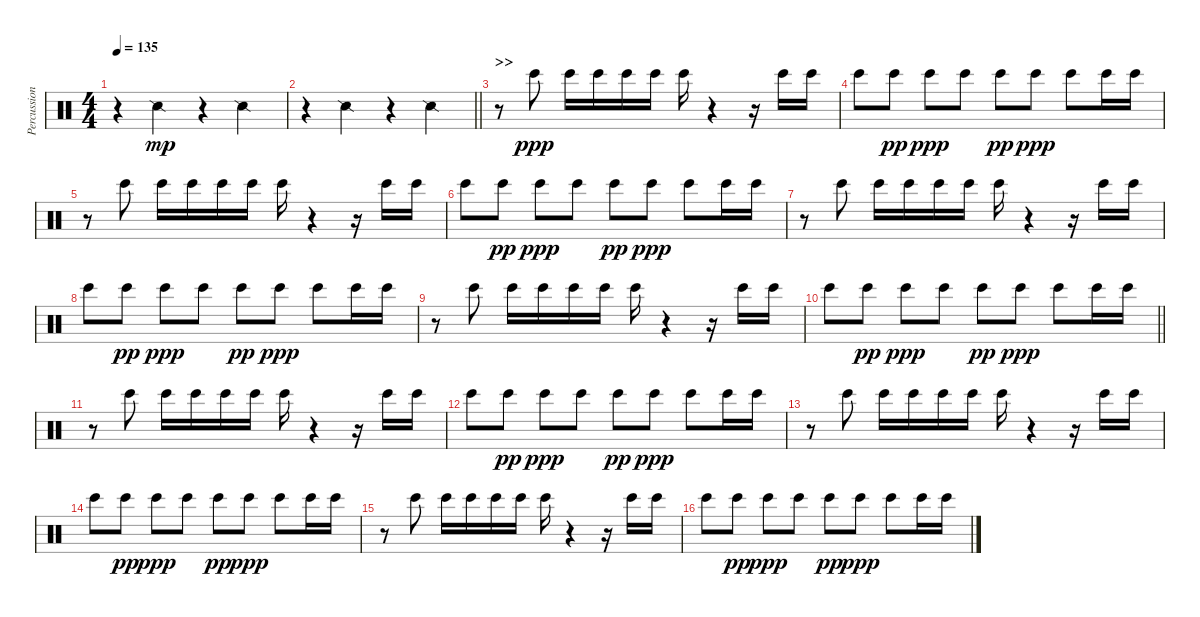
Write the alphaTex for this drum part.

\track ("Percussion" "Percussion") {instrument percussion}
\staff {score}
\articulation defaults
\ts (4 4)
\tempo 135
\clef neutral
\ks c
r.4{dy mp} "Snare (side stick) 2".4 r.4 "Snare (side stick) 2".4 |
\barLineRight lightlight
r.4 "Snare (side stick) 2".4 r.4 "Snare (side stick) 2".4 |
\section ("" ">>")
r.8 "Bongo High (hit)".8{dy ppp} "Bongo High (hit)".16 "Bongo High (hit)".16 "Bongo High (hit)".16 "Bongo High (hit)".16 "Bongo High (hit)".16 r.4 r.16 "Bongo High (hit)".16 "Bongo High (hit)".16 |
"Bongo High (hit)".8 "Bongo High (hit)".8{dy pp} "Bongo High (hit)".8{dy ppp} "Bongo High (hit)".8 "Bongo High (hit)".8{dy pp} "Bongo High (hit)".8{dy ppp} "Bongo High (hit)".8 "Bongo High (hit)".16 "Bongo High (hit)".16 |
r.8 "Bongo High (hit)".8 "Bongo High (hit)".16 "Bongo High (hit)".16 "Bongo High (hit)".16 "Bongo High (hit)".16 "Bongo High (hit)".16 r.4 r.16 "Bongo High (hit)".16 "Bongo High (hit)".16 |
"Bongo High (hit)".8 "Bongo High (hit)".8{dy pp} "Bongo High (hit)".8{dy ppp} "Bongo High (hit)".8 "Bongo High (hit)".8{dy pp} "Bongo High (hit)".8{dy ppp} "Bongo High (hit)".8 "Bongo High (hit)".16 "Bongo High (hit)".16 |
r.8 "Bongo High (hit)".8 "Bongo High (hit)".16 "Bongo High (hit)".16 "Bongo High (hit)".16 "Bongo High (hit)".16 "Bongo High (hit)".16 r.4 r.16 "Bongo High (hit)".16 "Bongo High (hit)".16 |
"Bongo High (hit)".8 "Bongo High (hit)".8{dy pp} "Bongo High (hit)".8{dy ppp} "Bongo High (hit)".8 "Bongo High (hit)".8{dy pp} "Bongo High (hit)".8{dy ppp} "Bongo High (hit)".8 "Bongo High (hit)".16 "Bongo High (hit)".16 |
r.8 "Bongo High (hit)".8 "Bongo High (hit)".16 "Bongo High (hit)".16 "Bongo High (hit)".16 "Bongo High (hit)".16 "Bongo High (hit)".16 r.4 r.16 "Bongo High (hit)".16 "Bongo High (hit)".16 |
\barLineRight lightlight "Bongo High (hit)".8 "Bongo High (hit)".8{dy pp} "Bongo High (hit)".8{dy ppp} "Bongo High (hit)".8 "Bongo High (hit)".8{dy pp} "Bongo High (hit)".8{dy ppp} "Bongo High (hit)".8 "Bongo High (hit)".16 "Bongo High (hit)".16
|
\section ("" "")
r.8 "Bongo High (hit)".8 "Bongo High (hit)".16 "Bongo High (hit)".16 "Bongo High (hit)".16 "Bongo High (hit)".16 "Bongo High (hit)".16 r.4 r.16 "Bongo High (hit)".16 "Bongo High (hit)".16 |
"Bongo High (hit)".8 "Bongo High (hit)".8{dy pp} "Bongo High (hit)".8{dy ppp} "Bongo High (hit)".8 "Bongo High (hit)".8{dy pp} "Bongo High (hit)".8{dy ppp} "Bongo High (hit)".8 "Bongo High (hit)".16 "Bongo High (hit)".16 |
r.8 "Bongo High (hit)".8 "Bongo High (hit)".16 "Bongo High (hit)".16 "Bongo High (hit)".16 "Bongo High (hit)".16 "Bongo High (hit)".16 r.4 r.16 "Bongo High (hit)".16 "Bongo High (hit)".16 |
"Bongo High (hit)".8 "Bongo High (hit)".8{dy pp} "Bongo High (hit)".8{dy ppp} "Bongo High (hit)".8 "Bongo High (hit)".8{dy pp} "Bongo High (hit)".8{dy ppp} "Bongo High (hit)".8 "Bongo High (hit)".16 "Bongo High (hit)".16 |
r.8 "Bongo High (hit)".8 "Bongo High (hit)".16 "Bongo High (hit)".16 "Bongo High (hit)".16 "Bongo High (hit)".16 "Bongo High (hit)".16 r.4 r.16 "Bongo High (hit)".16 "Bongo High (hit)".16 |
"Bongo High (hit)".8 "Bongo High (hit)".8{dy pp} "Bongo High (hit)".8{dy ppp} "Bongo High (hit)".8 "Bongo High (hit)".8{dy pp} "Bongo High (hit)".8{dy ppp} "Bongo High (hit)".8 "Bongo High (hit)".16 "Bongo High (hit)".16
